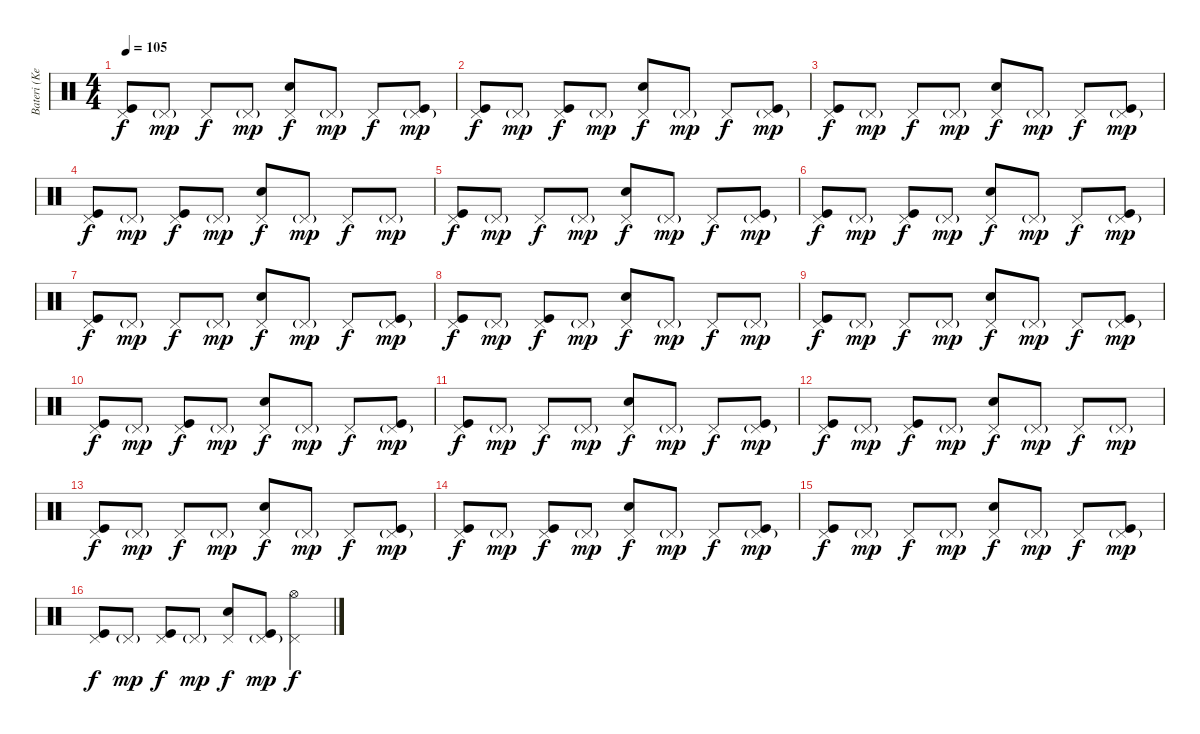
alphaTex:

\track ("Bateri (Kerem Kabadayı)" "Bateri (Ke") {instrument percussion}
\staff {score}
\articulation defaults
\ts (4 4)
\tempo 105
\clef neutral
\ks c
("Pedal Hi-Hat (hit)" "Kick (hit)").8{dy f} "Pedal Hi-Hat (hit)"{g}.8{dy mp} "Pedal Hi-Hat (hit)".8{dy f} "Pedal Hi-Hat (hit)"{g}.8{dy mp} ("Pedal Hi-Hat (hit)" "Electric Snare (hit)").8{dy f} "Pedal Hi-Hat (hit)"{g}.8{dy mp} "Pedal Hi-Hat (hit)".8{dy f} ("Pedal Hi-Hat (hit)"{g} "Kick (hit)").8{dy mp} |
("Pedal Hi-Hat (hit)" "Kick (hit)").8{dy f} "Pedal Hi-Hat (hit)"{g}.8{dy mp} ("Pedal Hi-Hat (hit)" "Kick (hit)").8{dy f} "Pedal Hi-Hat (hit)"{g}.8{dy mp} ("Pedal Hi-Hat (hit)" "Electric Snare (hit)").8{dy f} "Pedal Hi-Hat (hit)"{g}.8{dy mp} "Pedal Hi-Hat (hit)".8{dy f} ("Pedal Hi-Hat (hit)"{g} "Kick (hit)").8{dy mp} |
("Pedal Hi-Hat (hit)" "Kick (hit)").8{dy f} "Pedal Hi-Hat (hit)"{g}.8{dy mp} "Pedal Hi-Hat (hit)".8{dy f} "Pedal Hi-Hat (hit)"{g}.8{dy mp} ("Pedal Hi-Hat (hit)" "Electric Snare (hit)").8{dy f} "Pedal Hi-Hat (hit)"{g}.8{dy mp} "Pedal Hi-Hat (hit)".8{dy f} ("Pedal Hi-Hat (hit)"{g} "Kick (hit)").8{dy mp} |
("Pedal Hi-Hat (hit)" "Kick (hit)").8{dy f} "Pedal Hi-Hat (hit)"{g}.8{dy mp} ("Pedal Hi-Hat (hit)" "Kick (hit)").8{dy f} "Pedal Hi-Hat (hit)"{g}.8{dy mp} ("Pedal Hi-Hat (hit)" "Electric Snare (hit)").8{dy f} "Pedal Hi-Hat (hit)"{g}.8{dy mp} "Pedal Hi-Hat (hit)".8{dy f} "Pedal Hi-Hat (hit)"{g}.8{dy mp} |
("Pedal Hi-Hat (hit)" "Kick (hit)").8{dy f} "Pedal Hi-Hat (hit)"{g}.8{dy mp} "Pedal Hi-Hat (hit)".8{dy f} "Pedal Hi-Hat (hit)"{g}.8{dy mp} ("Pedal Hi-Hat (hit)" "Electric Snare (hit)").8{dy f} "Pedal Hi-Hat (hit)"{g}.8{dy mp} "Pedal Hi-Hat (hit)".8{dy f} ("Pedal Hi-Hat (hit)"{g} "Kick (hit)").8{dy mp} |
("Pedal Hi-Hat (hit)" "Kick (hit)").8{dy f} "Pedal Hi-Hat (hit)"{g}.8{dy mp} ("Pedal Hi-Hat (hit)" "Kick (hit)").8{dy f} "Pedal Hi-Hat (hit)"{g}.8{dy mp} ("Pedal Hi-Hat (hit)" "Electric Snare (hit)").8{dy f} "Pedal Hi-Hat (hit)"{g}.8{dy mp} "Pedal Hi-Hat (hit)".8{dy f} ("Pedal Hi-Hat (hit)"{g} "Kick (hit)").8{dy mp} |
("Pedal Hi-Hat (hit)" "Kick (hit)").8{dy f} "Pedal Hi-Hat (hit)"{g}.8{dy mp} "Pedal Hi-Hat (hit)".8{dy f} "Pedal Hi-Hat (hit)"{g}.8{dy mp} ("Pedal Hi-Hat (hit)" "Electric Snare (hit)").8{dy f} "Pedal Hi-Hat (hit)"{g}.8{dy mp} "Pedal Hi-Hat (hit)".8{dy f} ("Pedal Hi-Hat (hit)"{g} "Kick (hit)").8{dy mp} |
("Pedal Hi-Hat (hit)" "Kick (hit)").8{dy f} "Pedal Hi-Hat (hit)"{g}.8{dy mp} ("Pedal Hi-Hat (hit)" "Kick (hit)").8{dy f} "Pedal Hi-Hat (hit)"{g}.8{dy mp} ("Pedal Hi-Hat (hit)" "Electric Snare (hit)").8{dy f} "Pedal Hi-Hat (hit)"{g}.8{dy mp} "Pedal Hi-Hat (hit)".8{dy f} "Pedal Hi-Hat (hit)"{g}.8{dy mp} |
("Pedal Hi-Hat (hit)" "Kick (hit)").8{dy f} "Pedal Hi-Hat (hit)"{g}.8{dy mp} "Pedal Hi-Hat (hit)".8{dy f} "Pedal Hi-Hat (hit)"{g}.8{dy mp} ("Pedal Hi-Hat (hit)" "Electric Snare (hit)").8{dy f} "Pedal Hi-Hat (hit)"{g}.8{dy mp} "Pedal Hi-Hat (hit)".8{dy f} ("Pedal Hi-Hat (hit)"{g} "Kick (hit)").8{dy mp} |
("Pedal Hi-Hat (hit)" "Kick (hit)").8{dy f} "Pedal Hi-Hat (hit)"{g}.8{dy mp} ("Pedal Hi-Hat (hit)" "Kick (hit)").8{dy f} "Pedal Hi-Hat (hit)"{g}.8{dy mp} ("Pedal Hi-Hat (hit)" "Electric Snare (hit)").8{dy f} "Pedal Hi-Hat (hit)"{g}.8{dy mp} "Pedal Hi-Hat (hit)".8{dy f} ("Pedal Hi-Hat (hit)"{g} "Kick (hit)").8{dy mp} |
("Pedal Hi-Hat (hit)" "Kick (hit)").8{dy f} "Pedal Hi-Hat (hit)"{g}.8{dy mp} "Pedal Hi-Hat (hit)".8{dy f} "Pedal Hi-Hat (hit)"{g}.8{dy mp} ("Pedal Hi-Hat (hit)" "Electric Snare (hit)").8{dy f} "Pedal Hi-Hat (hit)"{g}.8{dy mp} "Pedal Hi-Hat (hit)".8{dy f} ("Pedal Hi-Hat (hit)"{g} "Kick (hit)").8{dy mp} |
("Pedal Hi-Hat (hit)" "Kick (hit)").8{dy f} "Pedal Hi-Hat (hit)"{g}.8{dy mp} ("Pedal Hi-Hat (hit)" "Kick (hit)").8{dy f} "Pedal Hi-Hat (hit)"{g}.8{dy mp} ("Pedal Hi-Hat (hit)" "Electric Snare (hit)").8{dy f} "Pedal Hi-Hat (hit)"{g}.8{dy mp} "Pedal Hi-Hat (hit)".8{dy f} "Pedal Hi-Hat (hit)"{g}.8{dy mp} |
("Pedal Hi-Hat (hit)" "Kick (hit)").8{dy f} "Pedal Hi-Hat (hit)"{g}.8{dy mp} "Pedal Hi-Hat (hit)".8{dy f} "Pedal Hi-Hat (hit)"{g}.8{dy mp} ("Pedal Hi-Hat (hit)" "Electric Snare (hit)").8{dy f} "Pedal Hi-Hat (hit)"{g}.8{dy mp} "Pedal Hi-Hat (hit)".8{dy f} ("Pedal Hi-Hat (hit)"{g} "Kick (hit)").8{dy mp} |
("Pedal Hi-Hat (hit)" "Kick (hit)").8{dy f} "Pedal Hi-Hat (hit)"{g}.8{dy mp} ("Pedal Hi-Hat (hit)" "Kick (hit)").8{dy f} "Pedal Hi-Hat (hit)"{g}.8{dy mp} ("Pedal Hi-Hat (hit)" "Electric Snare (hit)").8{dy f} "Pedal Hi-Hat (hit)"{g}.8{dy mp} "Pedal Hi-Hat (hit)".8{dy f} ("Pedal Hi-Hat (hit)"{g} "Kick (hit)").8{dy mp} |
("Pedal Hi-Hat (hit)" "Kick (hit)").8{dy f} "Pedal Hi-Hat (hit)"{g}.8{dy mp} "Pedal Hi-Hat (hit)".8{dy f} "Pedal Hi-Hat (hit)"{g}.8{dy mp} ("Pedal Hi-Hat (hit)" "Electric Snare (hit)").8{dy f} "Pedal Hi-Hat (hit)"{g}.8{dy mp} "Pedal Hi-Hat (hit)".8{dy f} ("Pedal Hi-Hat (hit)"{g} "Kick (hit)").8{dy mp} |
("Pedal Hi-Hat (hit)" "Kick (hit)").8{dy f} "Pedal Hi-Hat (hit)"{g}.8{dy mp} ("Pedal Hi-Hat (hit)" "Kick (hit)").8{dy f} "Pedal Hi-Hat (hit)"{g}.8{dy mp} ("Pedal Hi-Hat (hit)" "Electric Snare (hit)").8{dy f} ("Pedal Hi-Hat (hit)"{g} "Kick (hit)").8{dy mp} ("Pedal Hi-Hat (hit)" "Hi-Hat (open)").4{dy f}
